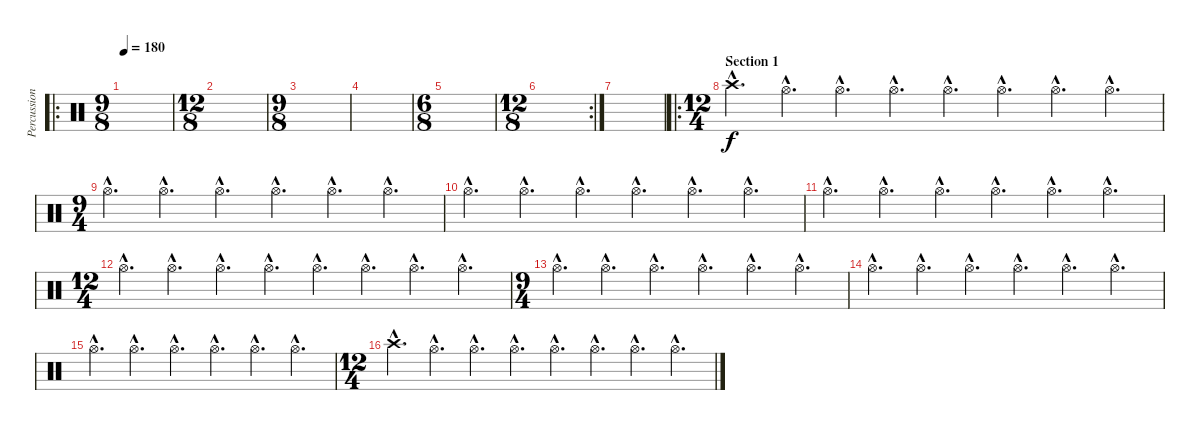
\track ("Percussion" "Percussion") {instrument percussion}
\staff {score}
\articulation defaults
\ro
\ts (9 8)
\tempo 180
\clef neutral
\ks c
|
\ts (12 8)
|
\ts (9 8)
|
|
\ts (6 8)
|
\rc 2
\ts (12 8)
|
|
\ro
\ts (12 4)
\section ("" "Section 1")
"Crash high (hit)"{hac}.4{d} "Hi-Hat (open)"{hac}.4{d} "Hi-Hat (open)"{hac}.4{d} "Hi-Hat (open)"{hac}.4{d} "Hi-Hat (open)"{hac}.4{d} "Hi-Hat (open)"{hac}.4{d} "Hi-Hat (open)"{hac}.4{d} "Hi-Hat (open)"{hac}.4{d} |
\ts (9 4)
"Hi-Hat (open)"{hac}.4{d} "Hi-Hat (open)"{hac}.4{d} "Hi-Hat (open)"{hac}.4{d} "Hi-Hat (open)"{hac}.4{d} "Hi-Hat (open)"{hac}.4{d} "Hi-Hat (open)"{hac}.4{d} |
"Hi-Hat (open)"{hac}.4{d} "Hi-Hat (open)"{hac}.4{d} "Hi-Hat (open)"{hac}.4{d} "Hi-Hat (open)"{hac}.4{d} "Hi-Hat (open)"{hac}.4{d} "Hi-Hat (open)"{hac}.4{d} |
"Hi-Hat (open)"{hac}.4{d} "Hi-Hat (open)"{hac}.4{d} "Hi-Hat (open)"{hac}.4{d} "Hi-Hat (open)"{hac}.4{d} "Hi-Hat (open)"{hac}.4{d} "Hi-Hat (open)"{hac}.4{d} |
\ts (12 4)
"Hi-Hat (open)"{hac}.4{d} "Hi-Hat (open)"{hac}.4{d} "Hi-Hat (open)"{hac}.4{d} "Hi-Hat (open)"{hac}.4{d} "Hi-Hat (open)"{hac}.4{d} "Hi-Hat (open)"{hac}.4{d} "Hi-Hat (open)"{hac}.4{d} "Hi-Hat (open)"{hac}.4{d} |
\ts (9 4)
"Hi-Hat (open)"{hac}.4{d} "Hi-Hat (open)"{hac}.4{d} "Hi-Hat (open)"{hac}.4{d} "Hi-Hat (open)"{hac}.4{d} "Hi-Hat (open)"{hac}.4{d} "Hi-Hat (open)"{hac}.4{d} |
"Hi-Hat (open)"{hac}.4{d} "Hi-Hat (open)"{hac}.4{d} "Hi-Hat (open)"{hac}.4{d} "Hi-Hat (open)"{hac}.4{d} "Hi-Hat (open)"{hac}.4{d} "Hi-Hat (open)"{hac}.4{d} |
"Hi-Hat (open)"{hac}.4{d} "Hi-Hat (open)"{hac}.4{d} "Hi-Hat (open)"{hac}.4{d} "Hi-Hat (open)"{hac}.4{d} "Hi-Hat (open)"{hac}.4{d} "Hi-Hat (open)"{hac}.4{d} |
\ts (12 4)
"Crash high (hit)"{hac}.4{d} "Hi-Hat (open)"{hac}.4{d} "Hi-Hat (open)"{hac}.4{d} "Hi-Hat (open)"{hac}.4{d} "Hi-Hat (open)"{hac}.4{d} "Hi-Hat (open)"{hac}.4{d} "Hi-Hat (open)"{hac}.4{d} "Hi-Hat (open)"{hac}.4{d}
